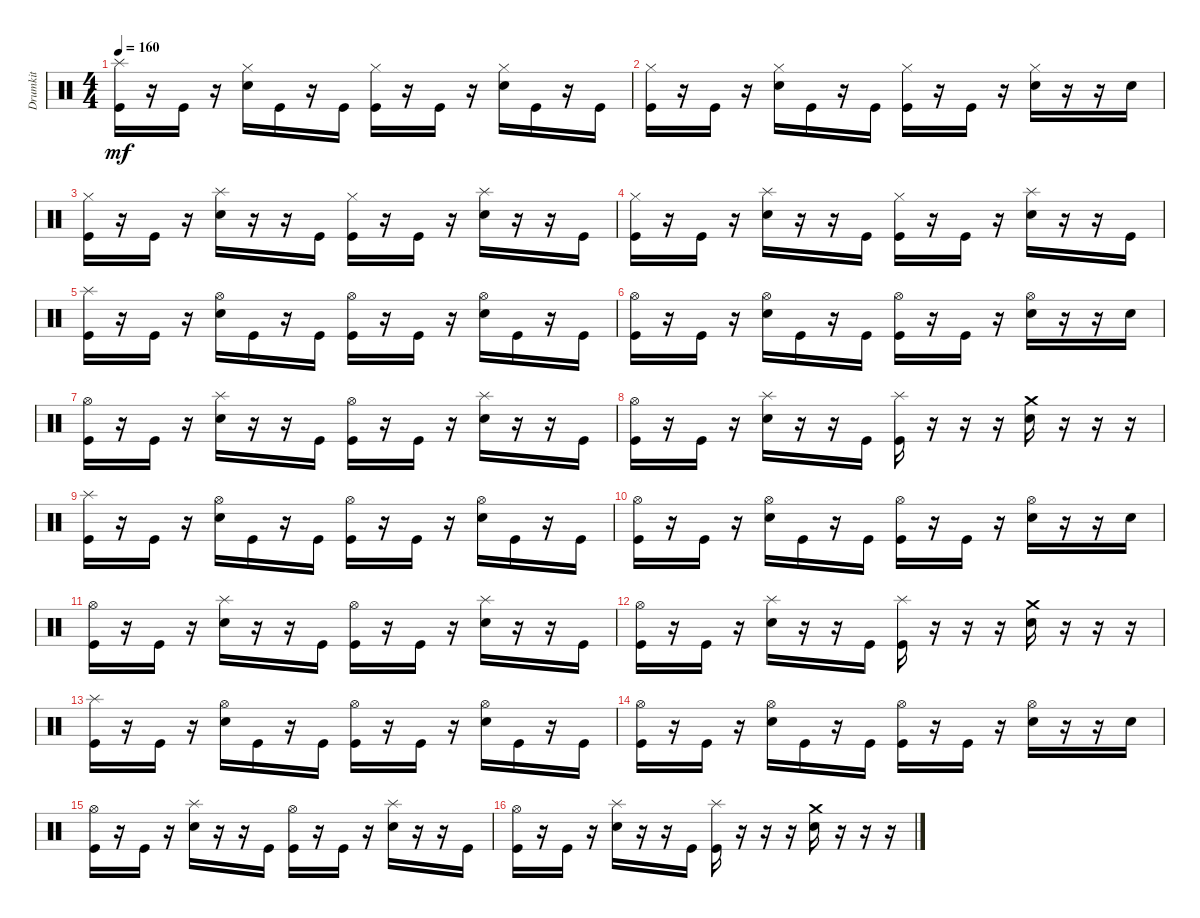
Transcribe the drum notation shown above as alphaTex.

\track ("Drumkit" "Drumkit") {instrument percussion}
\staff {score}
\articulation defaults
\ts (4 4)
\tempo 160
\clef neutral
\ks c
("Splash (hit)" "Kick (hit)").16{dy mf} r.16 "Kick (hit)".16 r.16 ("Hi-Hat (closed)" "Snare (hit) 2").16 "Kick (hit)".16 r.16 "Kick (hit)".16 ("Hi-Hat (closed)" "Kick (hit)").16 r.16 "Kick (hit)".16 r.16 ("Hi-Hat (closed)" "Snare (hit) 2").16 "Kick (hit)".16 r.16 "Kick (hit)".16 |
("Kick (hit)" "Hi-Hat (closed)").16 r.16 "Kick (hit)".16 r.16 ("Hi-Hat (closed)" "Snare (hit) 2").16 "Kick (hit)".16 r.16 "Kick (hit)".16 ("Hi-Hat (closed)" "Kick (hit)").16 r.16 "Kick (hit)".16 r.16 ("Hi-Hat (closed)" "Snare (hit) 2").16 r.16 r.16 "Snare (hit) 2".16 |
("Kick (hit)" "Hi-Hat (closed)").16 r.16 "Kick (hit)".16 r.16 ("Snare (hit) 2" "Splash (hit)").16 r.16 r.16 "Kick (hit)".16 ("Hi-Hat (closed)" "Kick (hit)").16 r.16 "Kick (hit)".16 r.16 ("Snare (hit) 2" "Splash (hit)").16 r.16 r.16 "Kick (hit)".16 |
("Kick (hit)" "Hi-Hat (closed)").16 r.16 "Kick (hit)".16 r.16 ("Snare (hit) 2" "Splash (hit)").16 r.16 r.16 "Kick (hit)".16 ("Hi-Hat (closed)" "Kick (hit)").16 r.16 "Kick (hit)".16 r.16 ("Snare (hit) 2" "Splash (hit)").16 r.16 r.16 "Kick (hit)".16 |
("Splash (hit)" "Kick (hit)").16 r.16 "Kick (hit)".16 r.16 ("Hi-Hat (open)" "Snare (hit) 2").16 "Kick (hit)".16 r.16 "Kick (hit)".16 ("Hi-Hat (open)" "Kick (hit)").16 r.16 "Kick (hit)".16 r.16 ("Hi-Hat (open)" "Snare (hit) 2").16 "Kick (hit)".16 r.16 "Kick (hit)".16 |
("Kick (hit)" "Hi-Hat (open)").16 r.16 "Kick (hit)".16 r.16 ("Hi-Hat (open)" "Snare (hit) 2").16 "Kick (hit)".16 r.16 "Kick (hit)".16 ("Hi-Hat (open)" "Kick (hit)").16 r.16 "Kick (hit)".16 r.16 ("Hi-Hat (open)" "Snare (hit) 2").16 r.16 r.16 "Snare (hit) 2".16 |
("Kick (hit)" "Hi-Hat (open)").16 r.16 "Kick (hit)".16 r.16 ("Snare (hit) 2" "Splash (hit)").16 r.16 r.16 "Kick (hit)".16 ("Hi-Hat (open)" "Kick (hit)").16 r.16 "Kick (hit)".16 r.16 ("Snare (hit) 2" "Splash (hit)").16 r.16 r.16 "Kick (hit)".16 |
("Kick (hit)" "Hi-Hat (open)").16 r.16 "Kick (hit)".16 r.16 ("Snare (hit) 2" "Splash (hit)").16 r.16 r.16 "Kick (hit)".16 ("Kick (hit)" "Splash (hit)").16 r.16 r.16 r.16 ("Snare (hit) 2" "Crash medium (hit)").16 r.16 r.16 r.16 |
("Splash (hit)" "Kick (hit)").16 r.16 "Kick (hit)".16 r.16 ("Hi-Hat (open)" "Snare (hit) 2").16 "Kick (hit)".16 r.16 "Kick (hit)".16 ("Hi-Hat (open)" "Kick (hit)").16 r.16 "Kick (hit)".16 r.16 ("Hi-Hat (open)" "Snare (hit) 2").16 "Kick (hit)".16 r.16 "Kick (hit)".16 |
("Kick (hit)" "Hi-Hat (open)").16 r.16 "Kick (hit)".16 r.16 ("Hi-Hat (open)" "Snare (hit) 2").16 "Kick (hit)".16 r.16 "Kick (hit)".16 ("Hi-Hat (open)" "Kick (hit)").16 r.16 "Kick (hit)".16 r.16 ("Hi-Hat (open)" "Snare (hit) 2").16 r.16 r.16 "Snare (hit) 2".16 |
("Kick (hit)" "Hi-Hat (open)").16 r.16 "Kick (hit)".16 r.16 ("Snare (hit) 2" "Splash (hit)").16 r.16 r.16 "Kick (hit)".16 ("Hi-Hat (open)" "Kick (hit)").16 r.16 "Kick (hit)".16 r.16 ("Snare (hit) 2" "Splash (hit)").16 r.16 r.16 "Kick (hit)".16 |
("Kick (hit)" "Hi-Hat (open)").16 r.16 "Kick (hit)".16 r.16 ("Snare (hit) 2" "Splash (hit)").16 r.16 r.16 "Kick (hit)".16 ("Kick (hit)" "Splash (hit)").16 r.16 r.16 r.16 ("Snare (hit) 2" "Crash medium (hit)").16 r.16 r.16 r.16 |
("Splash (hit)" "Kick (hit)").16 r.16 "Kick (hit)".16 r.16 ("Hi-Hat (open)" "Snare (hit) 2").16 "Kick (hit)".16 r.16 "Kick (hit)".16 ("Hi-Hat (open)" "Kick (hit)").16 r.16 "Kick (hit)".16 r.16 ("Hi-Hat (open)" "Snare (hit) 2").16 "Kick (hit)".16 r.16 "Kick (hit)".16 |
("Kick (hit)" "Hi-Hat (open)").16 r.16 "Kick (hit)".16 r.16 ("Hi-Hat (open)" "Snare (hit) 2").16 "Kick (hit)".16 r.16 "Kick (hit)".16 ("Hi-Hat (open)" "Kick (hit)").16 r.16 "Kick (hit)".16 r.16 ("Hi-Hat (open)" "Snare (hit) 2").16 r.16 r.16 "Snare (hit) 2".16 |
("Kick (hit)" "Hi-Hat (open)").16 r.16 "Kick (hit)".16 r.16 ("Snare (hit) 2" "Splash (hit)").16 r.16 r.16 "Kick (hit)".16 ("Hi-Hat (open)" "Kick (hit)").16 r.16 "Kick (hit)".16 r.16 ("Snare (hit) 2" "Splash (hit)").16 r.16 r.16 "Kick (hit)".16 |
("Kick (hit)" "Hi-Hat (open)").16 r.16 "Kick (hit)".16 r.16 ("Snare (hit) 2" "Splash (hit)").16 r.16 r.16 "Kick (hit)".16 ("Kick (hit)" "Splash (hit)").16 r.16 r.16 r.16 ("Snare (hit) 2" "Crash medium (hit)").16 r.16 r.16 r.16
